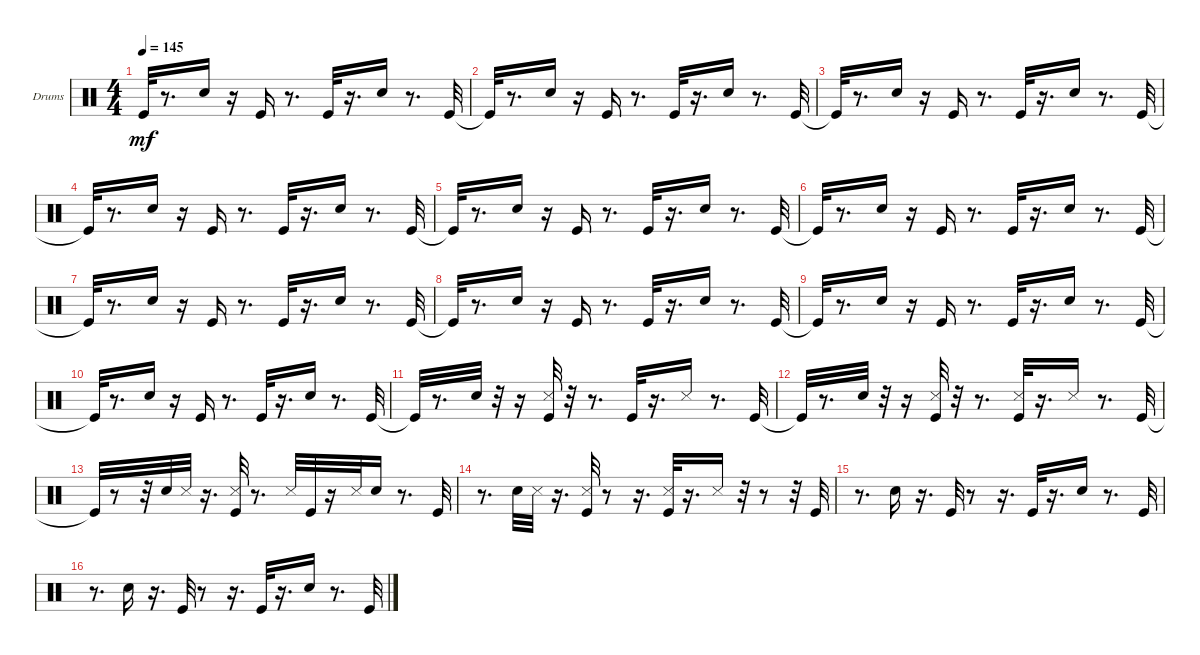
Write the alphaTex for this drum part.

\bracketExtendMode groupsimilarinstruments
\firstSystemTrackNameOrientation horizontal
\otherSystemsTrackNameOrientation horizontal
\track ("Drums" "Drums") {instrument percussion}
\staff {score}
\articulation defaults
\ts (4 4)
\tempo 145
\clef neutral
\ks c "Kick (hit)"{t}.32{dy mf}
r.8{d} "Snare (hit) 2".16 r.16 "Kick (hit)".16 r.8{d} "Kick (hit)".32 r.16{d} "Snare (hit) 2".16 r.8{d} "Kick (hit)".32 |
"Kick (hit)"{t}.32 r.8{d} "Snare (hit) 2".16 r.16 "Kick (hit)".16 r.8{d} "Kick (hit)".32 r.16{d} "Snare (hit) 2".16 r.8{d} "Kick (hit)".32 |
"Kick (hit)"{t}.32 r.8{d} "Snare (hit) 2".16 r.16 "Kick (hit)".16 r.8{d} "Kick (hit)".32 r.16{d} "Snare (hit) 2".16 r.8{d} "Kick (hit)".32 |
"Kick (hit)"{t}.32 r.8{d} "Snare (hit) 2".16 r.16 "Kick (hit)".16 r.8{d} "Kick (hit)".32 r.16{d} "Snare (hit) 2".16 r.8{d} "Kick (hit)".32 |
"Kick (hit)"{t}.32 r.8{d} "Snare (hit) 2".16 r.16 "Kick (hit)".16 r.8{d} "Kick (hit)".32 r.16{d} "Snare (hit) 2".16 r.8{d} "Kick (hit)".32 |
"Kick (hit)"{t}.32 r.8{d} "Snare (hit) 2".16 r.16 "Kick (hit)".16 r.8{d} "Kick (hit)".32 r.16{d} "Snare (hit) 2".16 r.8{d} "Kick (hit)".32 |
"Kick (hit)"{t}.32 r.8{d} "Snare (hit) 2".16 r.16 "Kick (hit)".16 r.8{d} "Kick (hit)".32 r.16{d} "Snare (hit) 2".16 r.8{d} "Kick (hit)".32 |
"Kick (hit)"{t}.32 r.8{d} "Snare (hit) 2".16 r.16 "Kick (hit)".16 r.8{d} "Kick (hit)".32 r.16{d} "Snare (hit) 2".16 r.8{d} "Kick (hit)".32 |
"Kick (hit)"{t}.32 r.8{d} "Snare (hit) 2".16 r.16 "Kick (hit)".16 r.8{d} "Kick (hit)".32 r.16{d} "Snare (hit) 2".16 r.8{d} "Kick (hit)".32 |
"Kick (hit)"{t}.32 r.8{d} "Snare (hit) 2".16 r.16 "Kick (hit)".16 r.8{d} "Kick (hit)".32 r.16{d} "Snare (hit) 2".16 r.8{d} "Kick (hit)".32 |
"Kick (hit)"{t}.32 r.8{d} "Snare (hit) 2".32 r.32 r.16 ("Kick (hit)" "Snare (side stick) 3").32 r.32 r.8{d} "Kick (hit)".32 r.16{d} "Snare (side stick) 3".16 r.8{d} "Kick (hit)".32 |
"Kick (hit)"{t}.32 r.8{d} "Snare (hit) 2".32 r.32 r.16 ("Kick (hit)" "Snare (side stick) 3").32 r.32 r.8{d} ("Snare (side stick) 3" "Kick (hit)").32 r.16{d} "Snare (side stick) 3".16 r.8{d} "Kick (hit)".32 |
"Kick (hit)"{t}.32 r.8 r.32 "Snare (hit) 2".32 "Snare (side stick) 3".32 r.16{d} ("Snare (side stick) 3" "Kick (hit)").32 r.8{d} "Snare (side stick) 3".32 "Kick (hit)".32 r.16 "Snare (side stick) 3".32 "Snare (hit) 2".16 r.8{d} "Kick (hit)".32 |
r.8{d} "Snare (hit) 2".32 "Snare (side stick) 3".32 r.16{d} ("Kick (hit)" "Snare (side stick) 3").32 r.8 r.16{d} ("Kick (hit)" "Snare (side stick) 3").32 r.16{d} "Snare (side stick) 3".16 r.32 r.8 r.32 "Kick (hit)".32 |
r.8{d} "Snare (hit) 2".16 r.16{d} "Kick (hit)".32 r.8 r.16{d} "Kick (hit)".32 r.16{d} "Snare (hit) 2".16 r.8{d} "Kick (hit)".32 |
r.8{d} "Snare (hit) 2".16 r.16{d} "Kick (hit)".32 r.8 r.16{d} "Kick (hit)".32 r.16{d} "Snare (hit) 2".16 r.8{d} "Kick (hit)".32
